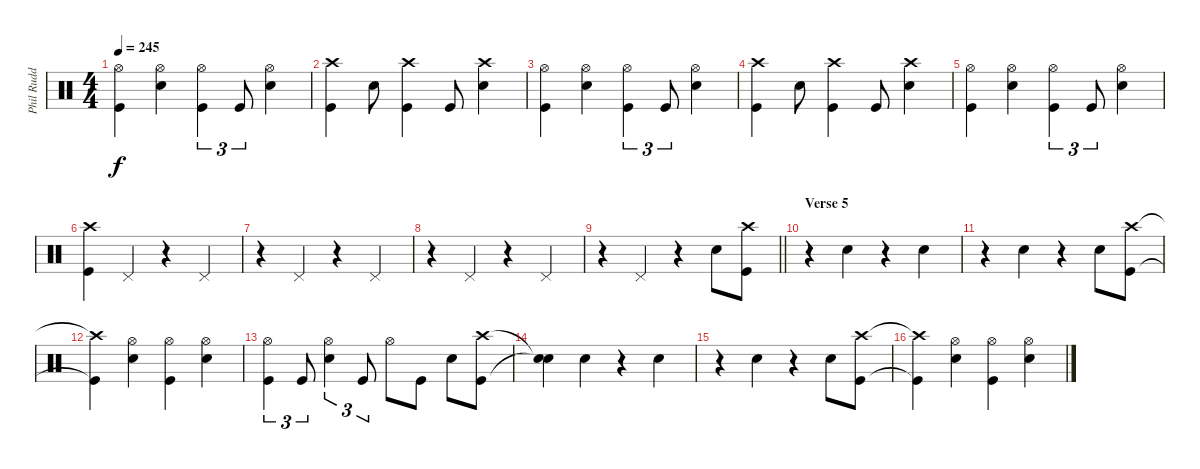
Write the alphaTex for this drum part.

\track ("Phil Rudd" "Phil Rudd") {instrument percussion}
\staff {score}
\articulation defaults
\ts (4 4)
\tempo 245
\clef neutral
\ks c
("Hi-Hat (open)" "Kick (hit)").4{dy f} ("Hi-Hat (open)" "Snare (hit) 2").4 ("Hi-Hat (open)" "Kick (hit)").4{tu (3 2)} "Kick (hit)".8{tu (3 2)} ("Hi-Hat (open)" "Snare (hit) 2").4 |
("Crash high (hit)" "Kick (hit)").4 "Snare (hit) 2".8 ("Crash high (hit)" "Kick (hit)").4 "Kick (hit)".8 ("Crash high (hit)" "Snare (hit) 2").4 |
("Hi-Hat (open)" "Kick (hit)").4 ("Hi-Hat (open)" "Snare (hit) 2").4 ("Hi-Hat (open)" "Kick (hit)").4{tu (3 2)} "Kick (hit)".8{tu (3 2)} ("Hi-Hat (open)" "Snare (hit) 2").4 |
("Crash high (hit)" "Kick (hit)").4 "Snare (hit) 2".8 ("Crash high (hit)" "Kick (hit)").4 "Kick (hit)".8 ("Crash high (hit)" "Snare (hit) 2").4 |
("Hi-Hat (open)" "Kick (hit)").4 ("Hi-Hat (open)" "Snare (hit) 2").4 ("Hi-Hat (open)" "Kick (hit)").4{tu (3 2)} "Kick (hit)".8{tu (3 2)} ("Hi-Hat (open)" "Snare (hit) 2").4 |
("Crash high (hit)" "Kick (hit)").4 "Pedal Hi-Hat (hit)".4 r.4 "Pedal Hi-Hat (hit)".4 |
r.4 "Pedal Hi-Hat (hit)".4 r.4 "Pedal Hi-Hat (hit)".4 |
r.4 "Pedal Hi-Hat (hit)".4 r.4 "Pedal Hi-Hat (hit)".4 |
\barLineRight lightlight
r.4 "Pedal Hi-Hat (hit)".4 r.4 "Snare (hit) 2".8 ("Crash high (hit)" "Kick (hit)").8 |
\section ("" "Verse 5")
r.4 "Snare (hit) 2".4 r.4 "Snare (hit) 2".4 |
r.4 "Snare (hit) 2".4 r.4 "Snare (hit) 2".8 ("Crash high (hit)" "Kick (hit)").8 |
("Crash high (hit)"{t} "Kick (hit)"{t}).4 ("Hi-Hat (open)" "Snare (hit) 2").4 ("Hi-Hat (open)" "Kick (hit)").4 ("Hi-Hat (open)" "Snare (hit) 2").4 |
("Hi-Hat (open)" "Kick (hit)").4{tu (3 2)} "Kick (hit)".8{tu (3 2)} ("Hi-Hat (open)" "Snare (hit) 2").4{tu (3 2)} "Kick (hit)".8{tu (3 2)} "Hi-Hat (open)".8 "Kick (hit)".8 "Snare (hit) 2".8 ("Crash high (hit)" "Kick (hit)").8 |
("Snare (hit)"{t} "Snare (hit)"{t}).4 "Snare (hit) 2".4 r.4 "Snare (hit) 2".4 |
r.4 "Snare (hit) 2".4 r.4 "Snare (hit) 2".8 ("Crash high (hit)" "Kick (hit)").8 |
("Crash high (hit)"{t} "Kick (hit)"{t}).4 ("Hi-Hat (open)" "Snare (hit) 2").4 ("Hi-Hat (open)" "Kick (hit)").4 ("Hi-Hat (open)" "Snare (hit) 2").4
